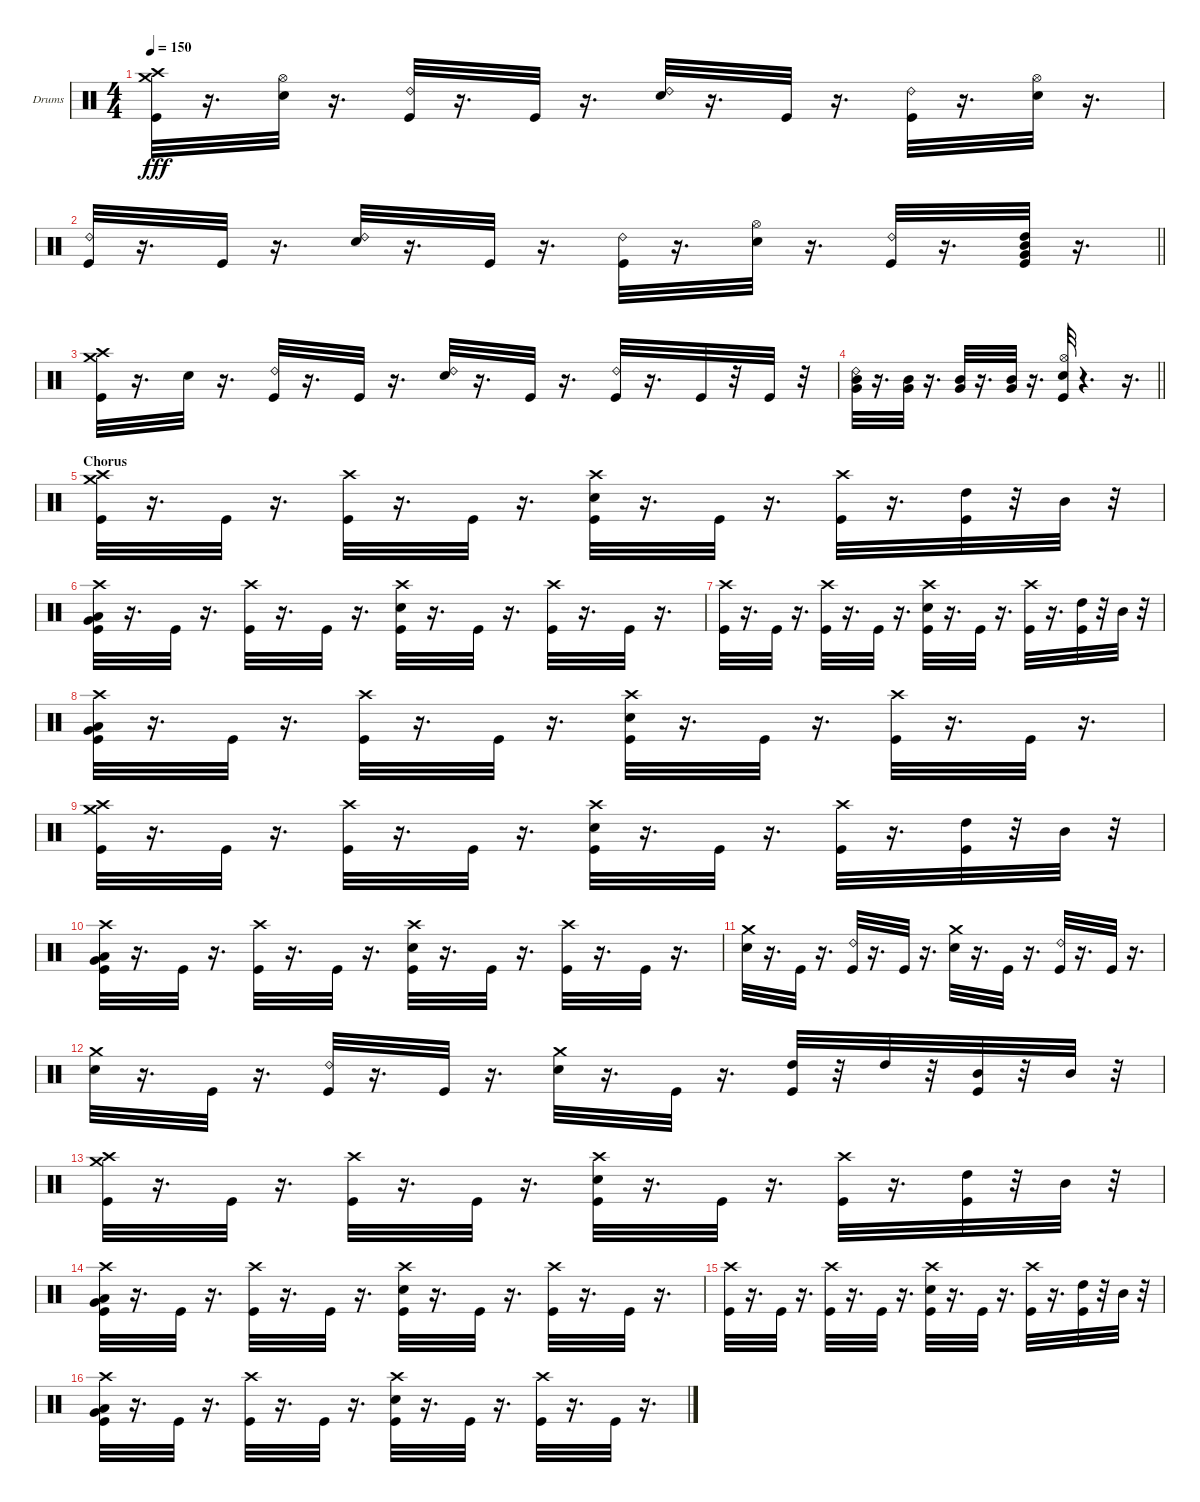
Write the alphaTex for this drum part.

\bracketExtendMode groupsimilarinstruments
\firstSystemTrackNameOrientation horizontal
\otherSystemsTrackNameOrientation horizontal
\track ("Dave McClain" "Drums") {mute instrument percussion}
\staff {score}
\articulation defaults
\ts (4 4)
\tempo 150
\clef neutral
\ks c
("Crash high (hit)" "Crash medium (hit)" "Kick (hit)").32{dy fff} r.16{d} ("Hi-Hat (open)" "Snare (hit) 2").32 r.16{d} ("Ride (bell) 2" "Kick (hit)").32 r.16{d} "Kick (hit)".32 r.16{d} ("Ride (bell) 2" "Snare (hit) 2").32 r.16{d} "Kick (hit)".32 r.16{d} ("Ride (bell) 2" "Kick (hit)").32 r.16{d} ("Hi-Hat (open)" "Snare (hit) 2").32 r.16{d} |
\barLineRight lightlight
("Ride (bell) 2" "Kick (hit)").32 r.16{d} "Kick (hit)".32 r.16{d} ("Ride (bell) 2" "Snare (hit) 2").32 r.16{d} "Kick (hit)".32 r.16{d} ("Ride (bell) 2" "Kick (hit)").32 r.16{d} ("Hi-Hat (open)" "Snare (hit) 2").32 r.16{d} ("Ride (bell) 2" "Kick (hit)").32 r.16{d} ("High Tom (hit)" "Mid Tom (hit)" "Very Low Tom (hit)" "Kick (hit)").32 r.16{d} |
("Kick (hit)" "Crash medium (hit)" "Crash high (hit)").32 r.16{d} "Snare (hit) 2".32 r.16{d} ("Kick (hit)" "Ride (bell) 2").32 r.16{d} "Kick (hit)".32 r.16{d} ("Snare (hit) 2" "Ride (bell) 2").32 r.16{d} "Kick (hit)".32 r.16{d} ("Kick (hit)" "Ride (bell) 2").32 r.16{d} "Kick (hit)".32 r.32 "Kick (hit)".32 r.32 |
\barLineRight lightlight
("Mid Tom (hit)" "Very Low Tom (hit)" "Ride (bell) 2").32 r.16{d} ("Mid Tom (hit)" "Very Low Tom (hit)").32 r.16{d} ("Very Low Tom (hit)" "Mid Tom (hit)").32 r.16{d} ("Very Low Tom (hit)" "Mid Tom (hit)").32 r.16{d} ("Kick (hit)" "Snare (hit) 2" "Hi-Hat (open)").32 r.4{d} r.16{d} |
\section ("" "Chorus")
("Crash medium (hit)" "Crash high (hit)" "Kick (hit)").32 r.16{d} "Kick (hit)".32 r.16{d} ("Crash high (hit)" "Kick (hit)").32 r.16{d} "Kick (hit)".32 r.16{d} ("Crash high (hit)" "Snare (hit) 2" "Kick (hit)").32 r.16{d} "Kick (hit)".32 r.16{d} ("Crash high (hit)" "Kick (hit)").32 r.16{d} ("High Tom (hit)" "Kick (hit)").32 r.32 "Mid Tom (hit)".32 r.32 |
("Very Low Tom (hit)" "Low Tom (hit)" "Crash high (hit)" "Kick (hit)").32 r.16{d} "Kick (hit)".32 r.16{d} ("Crash high (hit)" "Kick (hit)").32 r.16{d} "Kick (hit)".32 r.16{d} ("Crash high (hit)" "Snare (hit) 2" "Kick (hit)").32 r.16{d} "Kick (hit)".32 r.16{d} ("Crash high (hit)" "Kick (hit)").32 r.16{d} "Kick (hit)".32 r.16{d} |
("Crash high (hit)" "Kick (hit)").32 r.16{d} "Kick (hit)".32 r.16{d} ("Crash high (hit)" "Kick (hit)").32 r.16{d} "Kick (hit)".32 r.16{d} ("Crash high (hit)" "Snare (hit) 2" "Kick (hit)").32 r.16{d} "Kick (hit)".32 r.16{d} ("Crash high (hit)" "Kick (hit)").32 r.16{d} ("High Tom (hit)" "Kick (hit)").32 r.32 "Mid Tom (hit)".32 r.32 |
("Low Tom (hit)" "Very Low Tom (hit)" "Crash high (hit)" "Kick (hit)").32 r.16{d} "Kick (hit)".32 r.16{d} ("Crash high (hit)" "Kick (hit)").32 r.16{d} "Kick (hit)".32 r.16{d} ("Crash high (hit)" "Snare (hit) 2" "Kick (hit)").32 r.16{d} "Kick (hit)".32 r.16{d} ("Crash high (hit)" "Kick (hit)").32 r.16{d} "Kick (hit)".32 r.16{d} |
("Crash medium (hit)" "Crash high (hit)" "Kick (hit)").32 r.16{d} "Kick (hit)".32 r.16{d} ("Crash high (hit)" "Kick (hit)").32 r.16{d} "Kick (hit)".32 r.16{d} ("Crash high (hit)" "Snare (hit) 2" "Kick (hit)").32 r.16{d} "Kick (hit)".32 r.16{d} ("Crash high (hit)" "Kick (hit)").32 r.16{d} ("High Tom (hit)" "Kick (hit)").32 r.32 "Mid Tom (hit)".32 r.32 |
("Very Low Tom (hit)" "Low Tom (hit)" "Crash high (hit)" "Kick (hit)").32 r.16{d} "Kick (hit)".32 r.16{d} ("Crash high (hit)" "Kick (hit)").32 r.16{d} "Kick (hit)".32 r.16{d} ("Crash high (hit)" "Snare (hit) 2" "Kick (hit)").32 r.16{d} "Kick (hit)".32 r.16{d} ("Crash high (hit)" "Kick (hit)").32 r.16{d} "Kick (hit)".32 r.16{d} |
("Snare (hit) 2" "Crash medium (hit)").32 r.16{d} "Kick (hit)".32 r.16{d} ("Ride (bell) 2" "Kick (hit)").32 r.16{d} "Kick (hit)".32 r.16{d} ("Crash medium (hit)" "Snare (hit) 2").32 r.16{d} "Kick (hit)".32 r.16{d} ("Ride (bell) 2" "Kick (hit)").32 r.16{d} "Kick (hit)".32 r.16{d} |
("Crash medium (hit)" "Snare (hit) 2").32 r.16{d} "Kick (hit)".32 r.16{d} ("Ride (bell) 2" "Kick (hit)").32 r.16{d} "Kick (hit)".32 r.16{d} ("Crash medium (hit)" "Snare (hit) 2").32 r.16{d} "Kick (hit)".32 r.16{d} ("High Tom (hit)" "Kick (hit)").32 r.32 "High Tom (hit)".32 r.32 ("Mid Tom (hit)" "Kick (hit)").32 r.32 "Mid Tom (hit)".32 r.32 |
("Crash medium (hit)" "Crash high (hit)" "Kick (hit)").32 r.16{d} "Kick (hit)".32 r.16{d} ("Crash high (hit)" "Kick (hit)").32 r.16{d} "Kick (hit)".32 r.16{d} ("Crash high (hit)" "Snare (hit) 2" "Kick (hit)").32 r.16{d} "Kick (hit)".32 r.16{d} ("Crash high (hit)" "Kick (hit)").32 r.16{d} ("High Tom (hit)" "Kick (hit)").32 r.32 "Mid Tom (hit)".32 r.32 |
("Very Low Tom (hit)" "Low Tom (hit)" "Crash high (hit)" "Kick (hit)").32 r.16{d} "Kick (hit)".32 r.16{d} ("Crash high (hit)" "Kick (hit)").32 r.16{d} "Kick (hit)".32 r.16{d} ("Crash high (hit)" "Snare (hit) 2" "Kick (hit)").32 r.16{d} "Kick (hit)".32 r.16{d} ("Crash high (hit)" "Kick (hit)").32 r.16{d} "Kick (hit)".32 r.16{d} |
("Crash high (hit)" "Kick (hit)").32 r.16{d} "Kick (hit)".32 r.16{d} ("Crash high (hit)" "Kick (hit)").32 r.16{d} "Kick (hit)".32 r.16{d} ("Crash high (hit)" "Snare (hit) 2" "Kick (hit)").32 r.16{d} "Kick (hit)".32 r.16{d} ("Crash high (hit)" "Kick (hit)").32 r.16{d} ("High Tom (hit)" "Kick (hit)").32 r.32 "Mid Tom (hit)".32 r.32 |
("Low Tom (hit)" "Very Low Tom (hit)" "Crash high (hit)" "Kick (hit)").32 r.16{d} "Kick (hit)".32 r.16{d} ("Crash high (hit)" "Kick (hit)").32 r.16{d} "Kick (hit)".32 r.16{d} ("Crash high (hit)" "Snare (hit) 2" "Kick (hit)").32 r.16{d} "Kick (hit)".32 r.16{d} ("Crash high (hit)" "Kick (hit)").32 r.16{d} "Kick (hit)".32 r.16{d}
